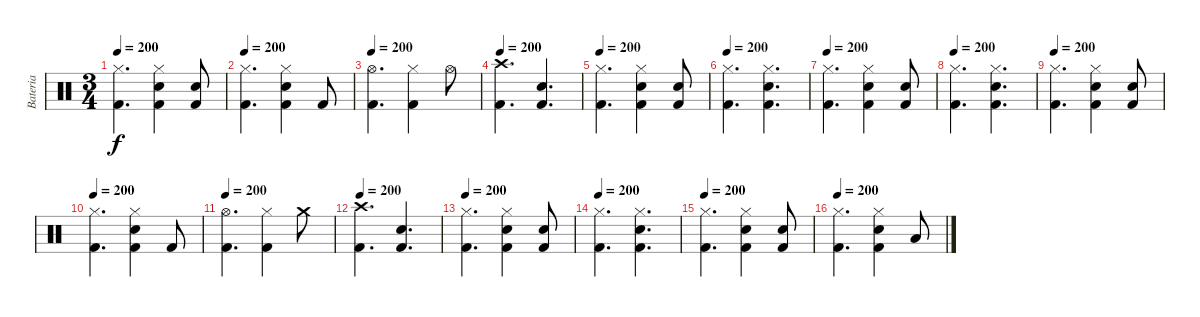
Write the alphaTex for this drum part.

\track ("Bateria" "Bateria") {instrument percussion}
\staff {score}
\articulation defaults
\ts (3 4)
\tempo 200
\clef neutral
\ks c
("Hi-Hat (closed)" "Kick (hit) 2").4{d dy f} ("Hi-Hat (closed)" "Electric Snare (hit)" "Kick (hit) 2").4 ("Electric Snare (hit)" "Kick (hit) 2").8 |
\tempo 200
("Hi-Hat (closed)" "Kick (hit) 2").4{d} ("Hi-Hat (closed)" "Electric Snare (hit)" "Kick (hit) 2").4 "Kick (hit) 2".8 |
\tempo 200
("Hi-Hat (open)" "Kick (hit) 2").4{d} ("Hi-Hat (closed)" "Kick (hit) 2").4 "Hi-Hat (open)".8 |
\tempo 200
("Crash high (hit)" "Kick (hit) 2").4{d} ("Electric Snare (hit)" "Kick (hit) 2").4{d} |
\tempo 200
("Hi-Hat (closed)" "Kick (hit) 2").4{d} ("Hi-Hat (closed)" "Electric Snare (hit)" "Kick (hit) 2").4 ("Electric Snare (hit)" "Kick (hit) 2").8 |
\tempo 200
("Hi-Hat (closed)" "Kick (hit) 2").4{d} ("Hi-Hat (closed)" "Electric Snare (hit)" "Kick (hit) 2").4{d} |
\tempo 200
("Hi-Hat (closed)" "Kick (hit) 2").4{d} ("Hi-Hat (closed)" "Electric Snare (hit)" "Kick (hit) 2").4 ("Electric Snare (hit)" "Kick (hit) 2").8 |
\tempo 200
("Hi-Hat (closed)" "Kick (hit) 2").4{d} ("Hi-Hat (closed)" "Electric Snare (hit)" "Kick (hit) 2").4{d} |
\tempo 200
("Hi-Hat (closed)" "Kick (hit) 2").4{d} ("Hi-Hat (closed)" "Electric Snare (hit)" "Kick (hit) 2").4 ("Electric Snare (hit)" "Kick (hit) 2").8 |
\tempo 200
("Hi-Hat (closed)" "Kick (hit) 2").4{d} ("Hi-Hat (closed)" "Electric Snare (hit)" "Kick (hit) 2").4 "Kick (hit) 2".8 |
\tempo 200
("Hi-Hat (open)" "Kick (hit) 2").4{d} ("Hi-Hat (closed)" "Kick (hit) 2").4 "Crash medium (hit)".8 |
\tempo 200
("Crash high (hit)" "Kick (hit) 2").4{d} ("Electric Snare (hit)" "Kick (hit) 2").4{d} |
\tempo 200
("Hi-Hat (closed)" "Kick (hit) 2").4{d} ("Hi-Hat (closed)" "Electric Snare (hit)" "Kick (hit) 2").4 ("Electric Snare (hit)" "Kick (hit) 2").8 |
\tempo 200
("Hi-Hat (closed)" "Kick (hit) 2").4{d} ("Hi-Hat (closed)" "Electric Snare (hit)" "Kick (hit) 2").4{d} |
\tempo 200
("Hi-Hat (closed)" "Kick (hit) 2").4{d} ("Hi-Hat (closed)" "Electric Snare (hit)" "Kick (hit) 2").4 ("Electric Snare (hit)" "Kick (hit) 2").8 |
\tempo 200
("Hi-Hat (closed)" "Kick (hit) 2").4{d} ("Hi-Hat (closed)" "Electric Snare (hit)" "Kick (hit) 2").4 "Low Tom (hit)".8
